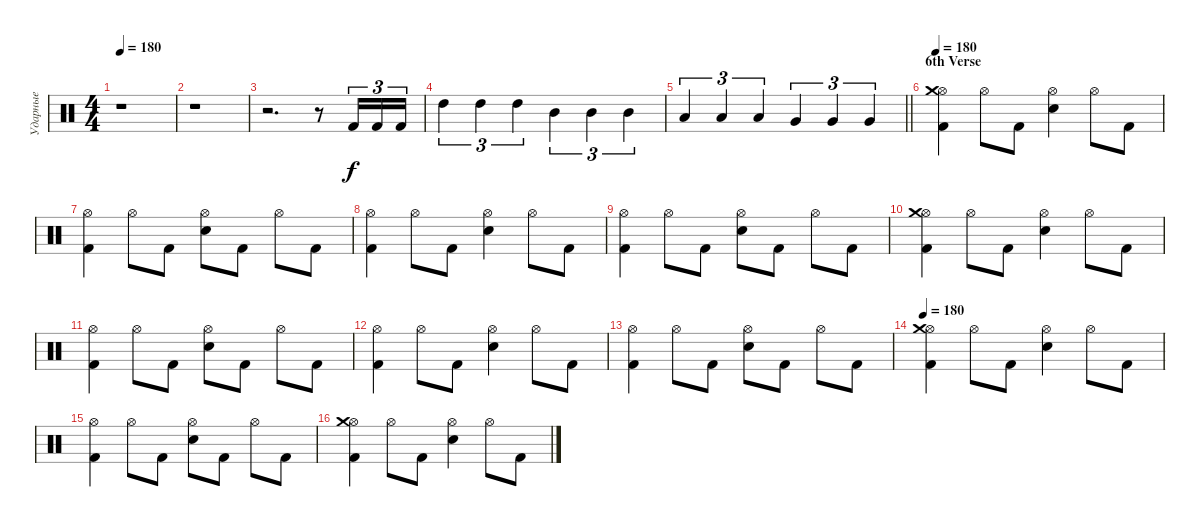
\track ("Ударные" "Ударные") {instrument percussion}
\staff {score}
\articulation defaults
\ts (4 4)
\tempo 180
\clef neutral
\ks c
r.1{dy f} |
r.1 |
r.2{d} r.8 "Kick (hit) 2".16{tu (3 2)} "Kick (hit) 2".16{tu (3 2)} "Kick (hit) 2".16{tu (3 2)} |
"High Tom (hit)".4{tu (3 2)} "High Tom (hit)".4{tu (3 2)} "High Tom (hit)".4{tu (3 2)} "Mid Tom (hit)".4{tu (3 2)} "Mid Tom (hit)".4{tu (3 2)} "Mid Tom (hit)".4{tu (3 2)} |
\barLineRight lightlight "Low Tom (hit)".4{tu (3 2)} "Low Tom (hit)".4{tu (3 2)} "Low Tom (hit)".4{tu (3 2)} "Very Low Tom (hit)".4{tu (3 2)} "Very Low Tom (hit)".4{tu (3 2)} "Very Low Tom (hit)".4{tu (3 2)}
|
\section ("" "6th Verse")
\tempo 180
("Kick (hit) 2" "Hi-Hat (open)" "Crash medium (hit)").4 "Hi-Hat (open)".8 "Kick (hit) 2".8 ("Electric Snare (hit)" "Hi-Hat (open)").4 "Hi-Hat (open)".8 "Kick (hit) 2".8 |
("Kick (hit) 2" "Hi-Hat (open)").4 "Hi-Hat (open)".8 "Kick (hit) 2".8 ("Electric Snare (hit)" "Hi-Hat (open)").8 "Kick (hit) 2".8 "Hi-Hat (open)".8 "Kick (hit) 2".8 |
("Kick (hit) 2" "Hi-Hat (open)").4 "Hi-Hat (open)".8 "Kick (hit) 2".8 ("Electric Snare (hit)" "Hi-Hat (open)").4 "Hi-Hat (open)".8 "Kick (hit) 2".8 |
("Kick (hit) 2" "Hi-Hat (open)").4 "Hi-Hat (open)".8 "Kick (hit) 2".8 ("Electric Snare (hit)" "Hi-Hat (open)").8 "Kick (hit) 2".8 "Hi-Hat (open)".8 "Kick (hit) 2".8 |
("Kick (hit) 2" "Hi-Hat (open)" "Crash medium (hit)").4 "Hi-Hat (open)".8 "Kick (hit) 2".8 ("Electric Snare (hit)" "Hi-Hat (open)").4 "Hi-Hat (open)".8 "Kick (hit) 2".8 |
("Kick (hit) 2" "Hi-Hat (open)").4 "Hi-Hat (open)".8 "Kick (hit) 2".8 ("Electric Snare (hit)" "Hi-Hat (open)").8 "Kick (hit) 2".8 "Hi-Hat (open)".8 "Kick (hit) 2".8 |
("Kick (hit) 2" "Hi-Hat (open)").4 "Hi-Hat (open)".8 "Kick (hit) 2".8 ("Electric Snare (hit)" "Hi-Hat (open)").4 "Hi-Hat (open)".8 "Kick (hit) 2".8 |
("Kick (hit) 2" "Hi-Hat (open)").4 "Hi-Hat (open)".8 "Kick (hit) 2".8 ("Electric Snare (hit)" "Hi-Hat (open)").8 "Kick (hit) 2".8 "Hi-Hat (open)".8 "Kick (hit) 2".8 |
\tempo 180
("Kick (hit) 2" "Hi-Hat (open)" "Crash medium (hit)").4 "Hi-Hat (open)".8 "Kick (hit) 2".8 ("Electric Snare (hit)" "Hi-Hat (open)").4 "Hi-Hat (open)".8 "Kick (hit) 2".8 |
("Kick (hit) 2" "Hi-Hat (open)").4 "Hi-Hat (open)".8 "Kick (hit) 2".8 ("Electric Snare (hit)" "Hi-Hat (open)").8 "Kick (hit) 2".8 "Hi-Hat (open)".8 "Kick (hit) 2".8 |
("Kick (hit) 2" "Hi-Hat (open)" "Crash medium (hit)").4 "Hi-Hat (open)".8 "Kick (hit) 2".8 ("Electric Snare (hit)" "Hi-Hat (open)").4 "Hi-Hat (open)".8 "Kick (hit) 2".8
